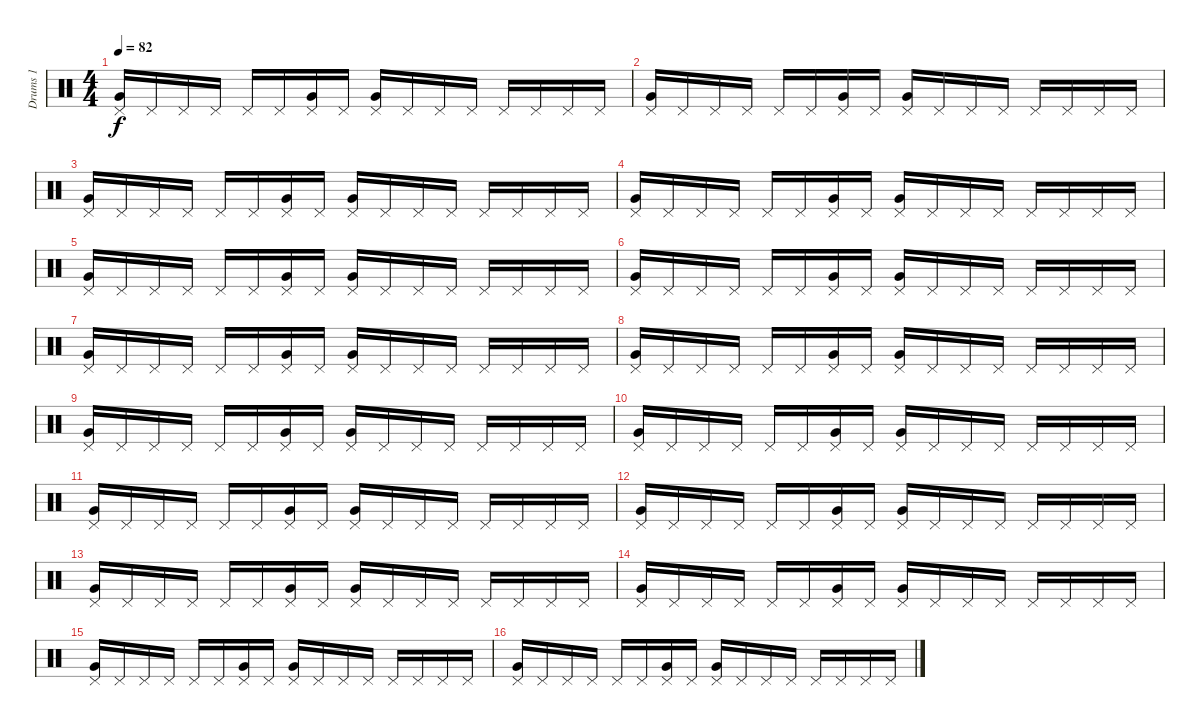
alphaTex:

\track ("Drums 1" "Drums 1") {instrument percussion}
\staff {score}
\articulation defaults
\ts (4 4)
\tempo 82
\clef neutral
\ks c
("Pedal Hi-Hat (hit)" "Very Low Tom (hit)").16{dy f} "Pedal Hi-Hat (hit)".16 "Pedal Hi-Hat (hit)".16 "Pedal Hi-Hat (hit)".16 "Pedal Hi-Hat (hit)".16 "Pedal Hi-Hat (hit)".16 ("Pedal Hi-Hat (hit)" "Very Low Tom (hit)").16 "Pedal Hi-Hat (hit)".16 ("Pedal Hi-Hat (hit)" "Very Low Tom (hit)").16 "Pedal Hi-Hat (hit)".16 "Pedal Hi-Hat (hit)".16 "Pedal Hi-Hat (hit)".16 "Pedal Hi-Hat (hit)".16 "Pedal Hi-Hat (hit)".16 "Pedal Hi-Hat (hit)".16 "Pedal Hi-Hat (hit)".16 |
("Pedal Hi-Hat (hit)" "Very Low Tom (hit)").16 "Pedal Hi-Hat (hit)".16 "Pedal Hi-Hat (hit)".16 "Pedal Hi-Hat (hit)".16 "Pedal Hi-Hat (hit)".16 "Pedal Hi-Hat (hit)".16 ("Pedal Hi-Hat (hit)" "Very Low Tom (hit)").16 "Pedal Hi-Hat (hit)".16 ("Pedal Hi-Hat (hit)" "Very Low Tom (hit)").16 "Pedal Hi-Hat (hit)".16 "Pedal Hi-Hat (hit)".16 "Pedal Hi-Hat (hit)".16 "Pedal Hi-Hat (hit)".16 "Pedal Hi-Hat (hit)".16 "Pedal Hi-Hat (hit)".16 "Pedal Hi-Hat (hit)".16 |
("Pedal Hi-Hat (hit)" "Very Low Tom (hit)").16 "Pedal Hi-Hat (hit)".16 "Pedal Hi-Hat (hit)".16 "Pedal Hi-Hat (hit)".16 "Pedal Hi-Hat (hit)".16 "Pedal Hi-Hat (hit)".16 ("Pedal Hi-Hat (hit)" "Very Low Tom (hit)").16 "Pedal Hi-Hat (hit)".16 ("Pedal Hi-Hat (hit)" "Very Low Tom (hit)").16 "Pedal Hi-Hat (hit)".16 "Pedal Hi-Hat (hit)".16 "Pedal Hi-Hat (hit)".16 "Pedal Hi-Hat (hit)".16 "Pedal Hi-Hat (hit)".16 "Pedal Hi-Hat (hit)".16 "Pedal Hi-Hat (hit)".16 |
("Pedal Hi-Hat (hit)" "Very Low Tom (hit)").16 "Pedal Hi-Hat (hit)".16 "Pedal Hi-Hat (hit)".16 "Pedal Hi-Hat (hit)".16 "Pedal Hi-Hat (hit)".16 "Pedal Hi-Hat (hit)".16 ("Pedal Hi-Hat (hit)" "Very Low Tom (hit)").16 "Pedal Hi-Hat (hit)".16 ("Pedal Hi-Hat (hit)" "Very Low Tom (hit)").16 "Pedal Hi-Hat (hit)".16 "Pedal Hi-Hat (hit)".16 "Pedal Hi-Hat (hit)".16 "Pedal Hi-Hat (hit)".16 "Pedal Hi-Hat (hit)".16 "Pedal Hi-Hat (hit)".16 "Pedal Hi-Hat (hit)".16 |
("Pedal Hi-Hat (hit)" "Very Low Tom (hit)").16 "Pedal Hi-Hat (hit)".16 "Pedal Hi-Hat (hit)".16 "Pedal Hi-Hat (hit)".16 "Pedal Hi-Hat (hit)".16 "Pedal Hi-Hat (hit)".16 ("Pedal Hi-Hat (hit)" "Very Low Tom (hit)").16 "Pedal Hi-Hat (hit)".16 ("Pedal Hi-Hat (hit)" "Very Low Tom (hit)").16 "Pedal Hi-Hat (hit)".16 "Pedal Hi-Hat (hit)".16 "Pedal Hi-Hat (hit)".16 "Pedal Hi-Hat (hit)".16 "Pedal Hi-Hat (hit)".16 "Pedal Hi-Hat (hit)".16 "Pedal Hi-Hat (hit)".16 |
("Pedal Hi-Hat (hit)" "Very Low Tom (hit)").16 "Pedal Hi-Hat (hit)".16 "Pedal Hi-Hat (hit)".16 "Pedal Hi-Hat (hit)".16 "Pedal Hi-Hat (hit)".16 "Pedal Hi-Hat (hit)".16 ("Pedal Hi-Hat (hit)" "Very Low Tom (hit)").16 "Pedal Hi-Hat (hit)".16 ("Pedal Hi-Hat (hit)" "Very Low Tom (hit)").16 "Pedal Hi-Hat (hit)".16 "Pedal Hi-Hat (hit)".16 "Pedal Hi-Hat (hit)".16 "Pedal Hi-Hat (hit)".16 "Pedal Hi-Hat (hit)".16 "Pedal Hi-Hat (hit)".16 "Pedal Hi-Hat (hit)".16 |
("Pedal Hi-Hat (hit)" "Very Low Tom (hit)").16 "Pedal Hi-Hat (hit)".16 "Pedal Hi-Hat (hit)".16 "Pedal Hi-Hat (hit)".16 "Pedal Hi-Hat (hit)".16 "Pedal Hi-Hat (hit)".16 ("Pedal Hi-Hat (hit)" "Very Low Tom (hit)").16 "Pedal Hi-Hat (hit)".16 ("Pedal Hi-Hat (hit)" "Very Low Tom (hit)").16 "Pedal Hi-Hat (hit)".16 "Pedal Hi-Hat (hit)".16 "Pedal Hi-Hat (hit)".16 "Pedal Hi-Hat (hit)".16 "Pedal Hi-Hat (hit)".16 "Pedal Hi-Hat (hit)".16 "Pedal Hi-Hat (hit)".16 |
("Pedal Hi-Hat (hit)" "Very Low Tom (hit)").16 "Pedal Hi-Hat (hit)".16 "Pedal Hi-Hat (hit)".16 "Pedal Hi-Hat (hit)".16 "Pedal Hi-Hat (hit)".16 "Pedal Hi-Hat (hit)".16 ("Pedal Hi-Hat (hit)" "Very Low Tom (hit)").16 "Pedal Hi-Hat (hit)".16 ("Pedal Hi-Hat (hit)" "Very Low Tom (hit)").16 "Pedal Hi-Hat (hit)".16 "Pedal Hi-Hat (hit)".16 "Pedal Hi-Hat (hit)".16 "Pedal Hi-Hat (hit)".16 "Pedal Hi-Hat (hit)".16 "Pedal Hi-Hat (hit)".16 "Pedal Hi-Hat (hit)".16 |
("Pedal Hi-Hat (hit)" "Very Low Tom (hit)").16 "Pedal Hi-Hat (hit)".16 "Pedal Hi-Hat (hit)".16 "Pedal Hi-Hat (hit)".16 "Pedal Hi-Hat (hit)".16 "Pedal Hi-Hat (hit)".16 ("Pedal Hi-Hat (hit)" "Very Low Tom (hit)").16 "Pedal Hi-Hat (hit)".16 ("Pedal Hi-Hat (hit)" "Very Low Tom (hit)").16 "Pedal Hi-Hat (hit)".16 "Pedal Hi-Hat (hit)".16 "Pedal Hi-Hat (hit)".16 "Pedal Hi-Hat (hit)".16 "Pedal Hi-Hat (hit)".16 "Pedal Hi-Hat (hit)".16 "Pedal Hi-Hat (hit)".16 |
("Pedal Hi-Hat (hit)" "Very Low Tom (hit)").16 "Pedal Hi-Hat (hit)".16 "Pedal Hi-Hat (hit)".16 "Pedal Hi-Hat (hit)".16 "Pedal Hi-Hat (hit)".16 "Pedal Hi-Hat (hit)".16 ("Pedal Hi-Hat (hit)" "Very Low Tom (hit)").16 "Pedal Hi-Hat (hit)".16 ("Pedal Hi-Hat (hit)" "Very Low Tom (hit)").16 "Pedal Hi-Hat (hit)".16 "Pedal Hi-Hat (hit)".16 "Pedal Hi-Hat (hit)".16 "Pedal Hi-Hat (hit)".16 "Pedal Hi-Hat (hit)".16 "Pedal Hi-Hat (hit)".16 "Pedal Hi-Hat (hit)".16 |
("Pedal Hi-Hat (hit)" "Very Low Tom (hit)").16 "Pedal Hi-Hat (hit)".16 "Pedal Hi-Hat (hit)".16 "Pedal Hi-Hat (hit)".16 "Pedal Hi-Hat (hit)".16 "Pedal Hi-Hat (hit)".16 ("Pedal Hi-Hat (hit)" "Very Low Tom (hit)").16 "Pedal Hi-Hat (hit)".16 ("Pedal Hi-Hat (hit)" "Very Low Tom (hit)").16 "Pedal Hi-Hat (hit)".16 "Pedal Hi-Hat (hit)".16 "Pedal Hi-Hat (hit)".16 "Pedal Hi-Hat (hit)".16 "Pedal Hi-Hat (hit)".16 "Pedal Hi-Hat (hit)".16 "Pedal Hi-Hat (hit)".16 |
("Pedal Hi-Hat (hit)" "Very Low Tom (hit)").16 "Pedal Hi-Hat (hit)".16 "Pedal Hi-Hat (hit)".16 "Pedal Hi-Hat (hit)".16 "Pedal Hi-Hat (hit)".16 "Pedal Hi-Hat (hit)".16 ("Pedal Hi-Hat (hit)" "Very Low Tom (hit)").16 "Pedal Hi-Hat (hit)".16 ("Pedal Hi-Hat (hit)" "Very Low Tom (hit)").16 "Pedal Hi-Hat (hit)".16 "Pedal Hi-Hat (hit)".16 "Pedal Hi-Hat (hit)".16 "Pedal Hi-Hat (hit)".16 "Pedal Hi-Hat (hit)".16 "Pedal Hi-Hat (hit)".16 "Pedal Hi-Hat (hit)".16 |
("Pedal Hi-Hat (hit)" "Very Low Tom (hit)").16 "Pedal Hi-Hat (hit)".16 "Pedal Hi-Hat (hit)".16 "Pedal Hi-Hat (hit)".16 "Pedal Hi-Hat (hit)".16 "Pedal Hi-Hat (hit)".16 ("Pedal Hi-Hat (hit)" "Very Low Tom (hit)").16 "Pedal Hi-Hat (hit)".16 ("Pedal Hi-Hat (hit)" "Very Low Tom (hit)").16 "Pedal Hi-Hat (hit)".16 "Pedal Hi-Hat (hit)".16 "Pedal Hi-Hat (hit)".16 "Pedal Hi-Hat (hit)".16 "Pedal Hi-Hat (hit)".16 "Pedal Hi-Hat (hit)".16 "Pedal Hi-Hat (hit)".16 |
("Pedal Hi-Hat (hit)" "Very Low Tom (hit)").16 "Pedal Hi-Hat (hit)".16 "Pedal Hi-Hat (hit)".16 "Pedal Hi-Hat (hit)".16 "Pedal Hi-Hat (hit)".16 "Pedal Hi-Hat (hit)".16 ("Pedal Hi-Hat (hit)" "Very Low Tom (hit)").16 "Pedal Hi-Hat (hit)".16 ("Pedal Hi-Hat (hit)" "Very Low Tom (hit)").16 "Pedal Hi-Hat (hit)".16 "Pedal Hi-Hat (hit)".16 "Pedal Hi-Hat (hit)".16 "Pedal Hi-Hat (hit)".16 "Pedal Hi-Hat (hit)".16 "Pedal Hi-Hat (hit)".16 "Pedal Hi-Hat (hit)".16 |
("Pedal Hi-Hat (hit)" "Very Low Tom (hit)").16 "Pedal Hi-Hat (hit)".16 "Pedal Hi-Hat (hit)".16 "Pedal Hi-Hat (hit)".16 "Pedal Hi-Hat (hit)".16 "Pedal Hi-Hat (hit)".16 ("Pedal Hi-Hat (hit)" "Very Low Tom (hit)").16 "Pedal Hi-Hat (hit)".16 ("Pedal Hi-Hat (hit)" "Very Low Tom (hit)").16 "Pedal Hi-Hat (hit)".16 "Pedal Hi-Hat (hit)".16 "Pedal Hi-Hat (hit)".16 "Pedal Hi-Hat (hit)".16 "Pedal Hi-Hat (hit)".16 "Pedal Hi-Hat (hit)".16 "Pedal Hi-Hat (hit)".16 |
("Pedal Hi-Hat (hit)" "Very Low Tom (hit)").16 "Pedal Hi-Hat (hit)".16 "Pedal Hi-Hat (hit)".16 "Pedal Hi-Hat (hit)".16 "Pedal Hi-Hat (hit)".16 "Pedal Hi-Hat (hit)".16 ("Pedal Hi-Hat (hit)" "Very Low Tom (hit)").16 "Pedal Hi-Hat (hit)".16 ("Pedal Hi-Hat (hit)" "Very Low Tom (hit)").16 "Pedal Hi-Hat (hit)".16 "Pedal Hi-Hat (hit)".16 "Pedal Hi-Hat (hit)".16 "Pedal Hi-Hat (hit)".16 "Pedal Hi-Hat (hit)".16 "Pedal Hi-Hat (hit)".16 "Pedal Hi-Hat (hit)".16
